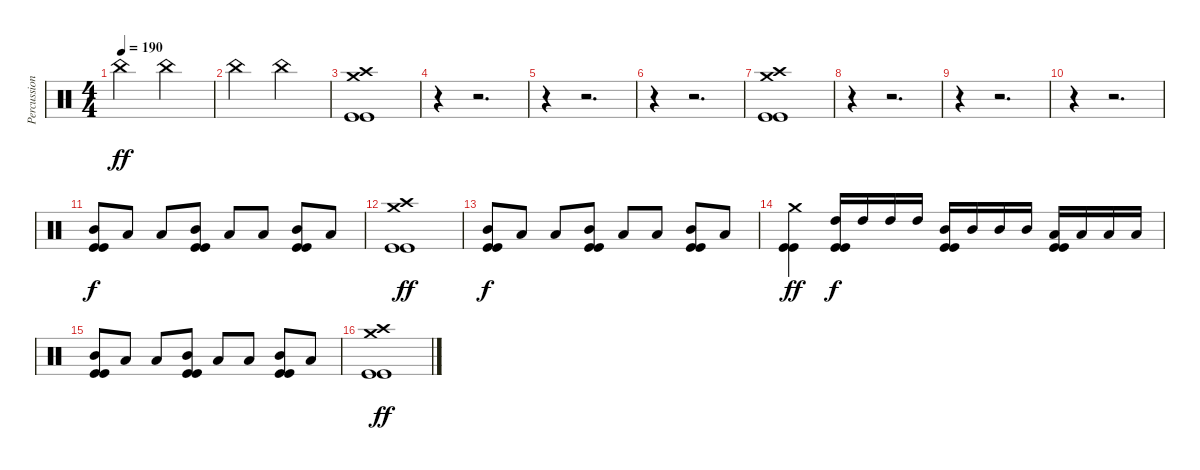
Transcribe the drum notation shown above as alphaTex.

\track ("Percussion" "Percussion") {instrument percussion}
\staff {score}
\articulation defaults
\ts (4 4)
\tempo 190
\clef neutral
\ks c "China (hit)".2{dy ff} "China (hit)".2
|
"China (hit)".2 "China (hit)".2 |
("Crash high (hit)" "Crash medium (hit)" "Kick (hit)" "Kick (hit)").1 |
r.4 r.2{d} |
r.4 r.2{d} |
r.4 r.2{d} |
("Crash high (hit)" "Crash medium (hit)" "Kick (hit)" "Kick (hit)").1 |
r.4 r.2{d} |
r.4 r.2{d} |
r.4 r.2{d} |
("Mid Tom (hit)" "Kick (hit)" "Kick (hit)").8{dy f} "Low Tom (hit)".8 "Low Tom (hit)".8 ("Mid Tom (hit)" "Kick (hit)" "Kick (hit)").8 "Low Tom (hit)".8 "Low Tom (hit)".8 ("Mid Tom (hit)" "Kick (hit)" "Kick (hit)").8 "Low Tom (hit)".8 |
("Crash high (hit)" "Crash medium (hit)" "Kick (hit)" "Kick (hit)").1{dy ff} |
("Mid Tom (hit)" "Kick (hit)" "Kick (hit)").8{dy f} "Low Tom (hit)".8 "Low Tom (hit)".8 ("Mid Tom (hit)" "Kick (hit)" "Kick (hit)").8 "Low Tom (hit)".8 "Low Tom (hit)".8 ("Mid Tom (hit)" "Kick (hit)" "Kick (hit)").8 "Low Tom (hit)".8 |
("Crash medium (hit)" "Kick (hit)" "Kick (hit)").4{dy ff} ("High Tom (hit)" "Kick (hit)" "Kick (hit)").16{dy f} "High Tom (hit)".16 "High Tom (hit)".16 "High Tom (hit)".16 ("Mid Tom (hit)" "Kick (hit)" "Kick (hit)").16 "Mid Tom (hit)".16 "Mid Tom (hit)".16 "Mid Tom (hit)".16 ("Low Tom (hit)" "Kick (hit)" "Kick (hit)").16 "Low Tom (hit)".16 "Low Tom (hit)".16 "Low Tom (hit)".16 |
("Mid Tom (hit)" "Kick (hit)" "Kick (hit)").8 "Low Tom (hit)".8 "Low Tom (hit)".8 ("Mid Tom (hit)" "Kick (hit)" "Kick (hit)").8 "Low Tom (hit)".8 "Low Tom (hit)".8 ("Mid Tom (hit)" "Kick (hit)" "Kick (hit)").8 "Low Tom (hit)".8 |
("Crash high (hit)" "Crash medium (hit)" "Kick (hit)" "Kick (hit)").1{dy ff}
